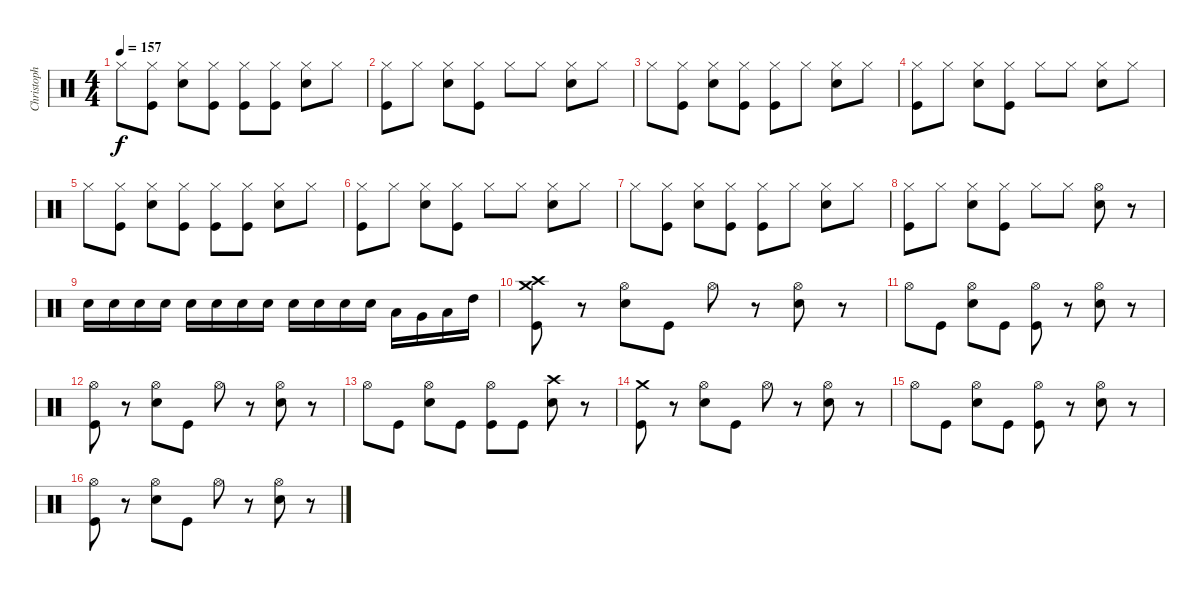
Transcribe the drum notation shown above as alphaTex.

\track ("Christoph" "Christoph") {instrument percussion}
\staff {score}
\articulation defaults
\ts (4 4)
\tempo 157
\clef neutral
\ks c "Hi-Hat (closed)".8{dy f}
("Hi-Hat (closed)" "Kick (hit)").8 ("Hi-Hat (closed)" "Snare (hit) 2").8 ("Hi-Hat (closed)" "Kick (hit)").8 ("Hi-Hat (closed)" "Kick (hit)").8 ("Hi-Hat (closed)" "Kick (hit)").8 ("Hi-Hat (closed)" "Snare (hit) 2").8 "Hi-Hat (closed)".8 |
("Hi-Hat (closed)" "Kick (hit)").8 "Hi-Hat (closed)".8 ("Hi-Hat (closed)" "Snare (hit) 2").8 ("Hi-Hat (closed)" "Kick (hit)").8 "Hi-Hat (closed)".8 "Hi-Hat (closed)".8 ("Hi-Hat (closed)" "Snare (hit) 2").8 "Hi-Hat (closed)".8 |
"Hi-Hat (closed)".8 ("Hi-Hat (closed)" "Kick (hit)").8 ("Hi-Hat (closed)" "Snare (hit) 2").8 ("Hi-Hat (closed)" "Kick (hit)").8 ("Hi-Hat (closed)" "Kick (hit)").8 "Hi-Hat (closed)".8 ("Hi-Hat (closed)" "Snare (hit) 2").8 "Hi-Hat (closed)".8 |
("Hi-Hat (closed)" "Kick (hit)").8 "Hi-Hat (closed)".8 ("Hi-Hat (closed)" "Snare (hit) 2").8 ("Hi-Hat (closed)" "Kick (hit)").8 "Hi-Hat (closed)".8 "Hi-Hat (closed)".8 ("Hi-Hat (closed)" "Snare (hit) 2").8 "Hi-Hat (closed)".8 |
"Hi-Hat (closed)".8 ("Hi-Hat (closed)" "Kick (hit)").8 ("Hi-Hat (closed)" "Snare (hit) 2").8 ("Hi-Hat (closed)" "Kick (hit)").8 ("Hi-Hat (closed)" "Kick (hit)").8 ("Hi-Hat (closed)" "Kick (hit)").8 ("Hi-Hat (closed)" "Snare (hit) 2").8 "Hi-Hat (closed)".8 |
("Hi-Hat (closed)" "Kick (hit)").8 "Hi-Hat (closed)".8 ("Hi-Hat (closed)" "Snare (hit) 2").8 ("Hi-Hat (closed)" "Kick (hit)").8 "Hi-Hat (closed)".8 "Hi-Hat (closed)".8 ("Hi-Hat (closed)" "Snare (hit) 2").8 "Hi-Hat (closed)".8 |
"Hi-Hat (closed)".8 ("Hi-Hat (closed)" "Kick (hit)").8 ("Hi-Hat (closed)" "Snare (hit) 2").8 ("Hi-Hat (closed)" "Kick (hit)").8 ("Hi-Hat (closed)" "Kick (hit)").8 "Hi-Hat (closed)".8 ("Hi-Hat (closed)" "Snare (hit) 2").8 "Hi-Hat (closed)".8 |
("Hi-Hat (closed)" "Kick (hit)").8 "Hi-Hat (closed)".8 ("Hi-Hat (closed)" "Snare (hit) 2").8 ("Hi-Hat (closed)" "Kick (hit)").8 "Hi-Hat (closed)".8 "Hi-Hat (closed)".8 ("Hi-Hat (open)" "Snare (hit) 2").8 r.8 |
"Snare (hit) 2".16 "Snare (hit) 2".16 "Snare (hit) 2".16 "Snare (hit) 2".16 "Snare (hit) 2".16 "Snare (hit) 2".16 "Snare (hit) 2".16 "Snare (hit) 2".16 "Snare (hit) 2".16 "Snare (hit) 2".16 "Snare (hit) 2".16 "Snare (hit) 2".16 "Low Floor Tom (hit)".16 "Very Low Tom (hit)".16 "Low Tom (hit)".16 "High Tom (hit)".16 |
("Crash medium (hit)" "Crash high (hit)" "Kick (hit)").8 r.8 ("Hi-Hat (open)" "Snare (hit) 2").8 "Kick (hit)".8 "Hi-Hat (open)".8 r.8 ("Hi-Hat (open)" "Snare (hit) 2").8 r.8 |
"Hi-Hat (open)".8 "Kick (hit)".8 ("Hi-Hat (open)" "Snare (hit) 2").8 "Kick (hit)".8 ("Hi-Hat (open)" "Kick (hit)").8 r.8 ("Hi-Hat (open)" "Snare (hit) 2").8 r.8 |
("Hi-Hat (open)" "Kick (hit)").8 r.8 ("Hi-Hat (open)" "Snare (hit) 2").8 "Kick (hit)".8 "Hi-Hat (open)".8 r.8 ("Hi-Hat (open)" "Snare (hit) 2").8 r.8 |
"Hi-Hat (open)".8 "Kick (hit)".8 ("Hi-Hat (open)" "Snare (hit) 2").8 "Kick (hit)".8 ("Hi-Hat (open)" "Kick (hit)").8 "Kick (hit)".8 ("Snare (hit) 2" "Crash high (hit)").8 r.8 |
("Crash medium (hit)" "Kick (hit)").8 r.8 ("Hi-Hat (open)" "Snare (hit) 2").8 "Kick (hit)".8 "Hi-Hat (open)".8 r.8 ("Hi-Hat (open)" "Snare (hit) 2").8 r.8 |
"Hi-Hat (open)".8 "Kick (hit)".8 ("Hi-Hat (open)" "Snare (hit) 2").8 "Kick (hit)".8 ("Hi-Hat (open)" "Kick (hit)").8 r.8 ("Hi-Hat (open)" "Snare (hit) 2").8 r.8 |
("Hi-Hat (open)" "Kick (hit)").8 r.8 ("Hi-Hat (open)" "Snare (hit) 2").8 "Kick (hit)".8 "Hi-Hat (open)".8 r.8 ("Hi-Hat (open)" "Snare (hit) 2").8 r.8
